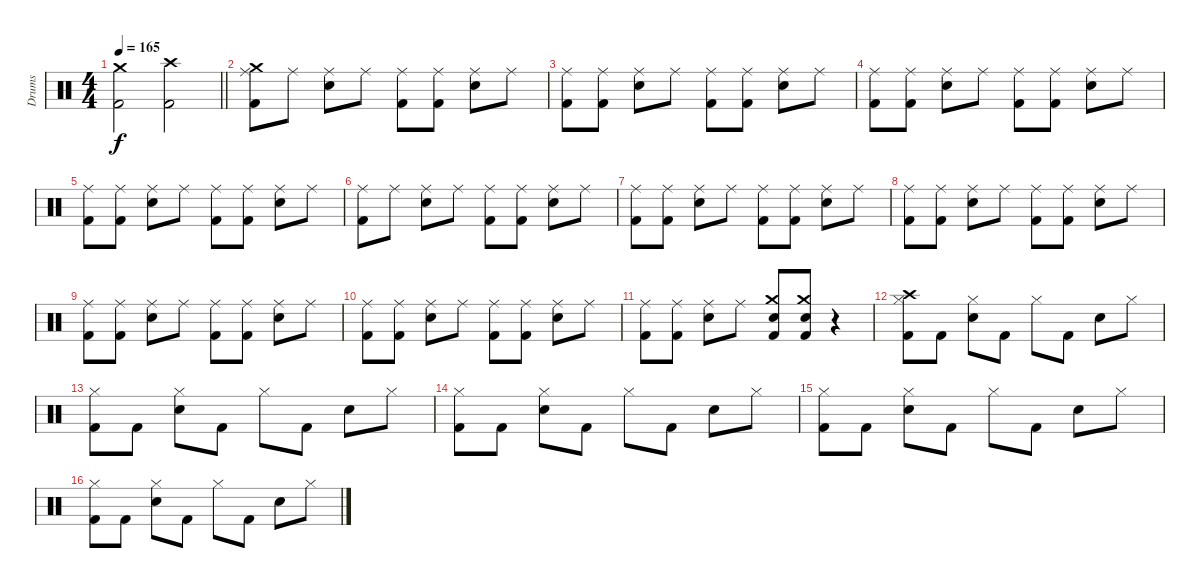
\track ("Drums" "Drums") {instrument percussion}
\staff {score}
\articulation defaults
\ts (4 4)
\tempo 165
\clef neutral
\barLineRight lightlight
\ks c
("Kick (hit) 2" "Crash medium (hit)").2{dy f} ("Kick (hit) 2" "Crash high (hit)").2 |
("Crash medium (hit)" "Kick (hit) 2" "Ride (middle)").8 "Ride (middle)".8 ("Snare (hit) 2" "Ride (middle)").8 "Ride (middle)".8 ("Kick (hit) 2" "Ride (middle)").8 ("Kick (hit) 2" "Ride (middle)").8 ("Snare (hit) 2" "Ride (middle)").8 "Ride (middle)".8 |
("Kick (hit) 2" "Ride (middle)").8 ("Kick (hit) 2" "Ride (middle)").8 ("Snare (hit) 2" "Ride (middle)").8 "Ride (middle)".8 ("Kick (hit) 2" "Ride (middle)").8 ("Kick (hit) 2" "Ride (middle)").8 ("Snare (hit) 2" "Ride (middle)").8 "Ride (middle)".8 |
("Kick (hit) 2" "Ride (middle)").8 ("Kick (hit) 2" "Ride (middle)").8 ("Snare (hit) 2" "Ride (middle)").8 "Ride (middle)".8 ("Kick (hit) 2" "Ride (middle)").8 ("Kick (hit) 2" "Ride (middle)").8 ("Snare (hit) 2" "Ride (middle)").8 "Ride (middle)".8 |
("Kick (hit) 2" "Ride (middle)").8 ("Kick (hit) 2" "Ride (middle)").8 ("Snare (hit) 2" "Ride (middle)").8 "Ride (middle)".8 ("Kick (hit) 2" "Ride (middle)").8 ("Kick (hit) 2" "Ride (middle)").8 ("Snare (hit) 2" "Ride (middle)").8 "Ride (middle)".8 |
("Kick (hit) 2" "Ride (middle)").8 "Ride (middle)".8 ("Snare (hit) 2" "Ride (middle)").8 "Ride (middle)".8 ("Kick (hit) 2" "Ride (middle)").8 ("Kick (hit) 2" "Ride (middle)").8 ("Snare (hit) 2" "Ride (middle)").8 "Ride (middle)".8 |
("Kick (hit) 2" "Ride (middle)").8 ("Kick (hit) 2" "Ride (middle)").8 ("Snare (hit) 2" "Ride (middle)").8 "Ride (middle)".8 ("Kick (hit) 2" "Ride (middle)").8 ("Kick (hit) 2" "Ride (middle)").8 ("Snare (hit) 2" "Ride (middle)").8 "Ride (middle)".8 |
("Kick (hit) 2" "Ride (middle)").8 ("Kick (hit) 2" "Ride (middle)").8 ("Snare (hit) 2" "Ride (middle)").8 "Ride (middle)".8 ("Kick (hit) 2" "Ride (middle)").8 ("Kick (hit) 2" "Ride (middle)").8 ("Snare (hit) 2" "Ride (middle)").8 "Ride (middle)".8 |
("Kick (hit) 2" "Ride (middle)").8 ("Kick (hit) 2" "Ride (middle)").8 ("Snare (hit) 2" "Ride (middle)").8 "Ride (middle)".8 ("Kick (hit) 2" "Ride (middle)").8 ("Kick (hit) 2" "Ride (middle)").8 ("Snare (hit) 2" "Ride (middle)").8 "Ride (middle)".8 |
("Kick (hit) 2" "Ride (middle)").8 ("Kick (hit) 2" "Ride (middle)").8 ("Snare (hit) 2" "Ride (middle)").8 "Ride (middle)".8 ("Kick (hit) 2" "Ride (middle)").8 ("Kick (hit) 2" "Ride (middle)").8 ("Snare (hit) 2" "Ride (middle)").8 "Ride (middle)".8 |
("Kick (hit) 2" "Ride (middle)").8 ("Kick (hit) 2" "Ride (middle)").8 ("Snare (hit) 2" "Ride (middle)").8 "Ride (middle)".8 ("Kick (hit) 2" "Crash medium (hit)" "Snare (hit) 2").8 ("Kick (hit) 2" "Crash medium (hit)" "Snare (hit) 2").8 r.4 |
("Crash high (hit)" "Kick (hit) 2" "Hi-Hat (closed)").8 "Kick (hit) 2".8 ("Snare (hit) 2" "Hi-Hat (closed)").8 "Kick (hit) 2".8 "Hi-Hat (closed)".8 "Kick (hit) 2".8 "Snare (hit) 2".8 "Hi-Hat (closed)".8 |
("Kick (hit) 2" "Hi-Hat (closed)").8 "Kick (hit) 2".8 ("Snare (hit) 2" "Hi-Hat (closed)").8 "Kick (hit) 2".8 "Hi-Hat (closed)".8 "Kick (hit) 2".8 "Snare (hit) 2".8 "Hi-Hat (closed)".8 |
("Kick (hit) 2" "Hi-Hat (closed)").8 "Kick (hit) 2".8 ("Snare (hit) 2" "Hi-Hat (closed)").8 "Kick (hit) 2".8 "Hi-Hat (closed)".8 "Kick (hit) 2".8 "Snare (hit) 2".8 "Hi-Hat (closed)".8 |
("Kick (hit) 2" "Hi-Hat (closed)").8 "Kick (hit) 2".8 ("Snare (hit) 2" "Hi-Hat (closed)").8 "Kick (hit) 2".8 "Hi-Hat (closed)".8 "Kick (hit) 2".8 "Snare (hit) 2".8 "Hi-Hat (closed)".8 |
("Kick (hit) 2" "Hi-Hat (closed)").8 "Kick (hit) 2".8 ("Snare (hit) 2" "Hi-Hat (closed)").8 "Kick (hit) 2".8 "Hi-Hat (closed)".8 "Kick (hit) 2".8 "Snare (hit) 2".8 "Hi-Hat (closed)".8
